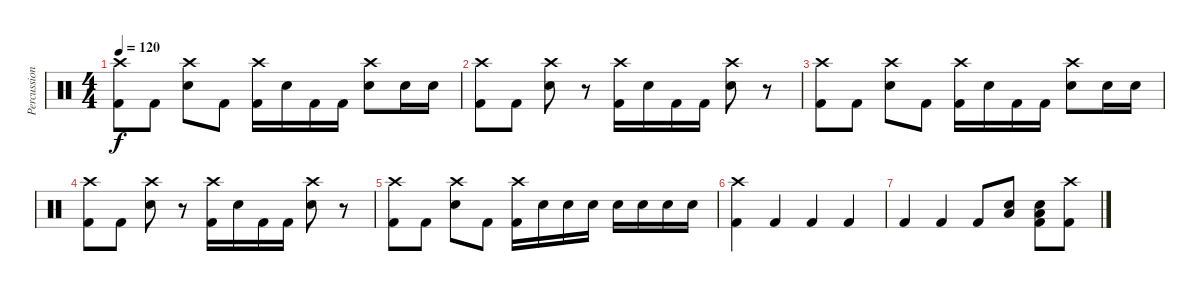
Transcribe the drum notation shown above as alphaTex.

\track ("Percussion" "Percussion") {instrument percussion}
\staff {score}
\articulation defaults
\ts (4 4)
\tempo 120
\clef neutral
\ks c
("Kick (hit) 2" "Crash high (hit)").8{dy f} "Kick (hit) 2".8 ("Electric Snare (hit)" "Crash high (hit)").8 "Kick (hit) 2".8 ("Kick (hit) 2" "Crash high (hit)").16 "Electric Snare (hit)".16 "Kick (hit) 2".16 "Kick (hit) 2".16 ("Electric Snare (hit)" "Crash high (hit)").8 "Electric Snare (hit)".16 "Electric Snare (hit)".16 |
("Kick (hit) 2" "Crash high (hit)").8 "Kick (hit) 2".8 ("Electric Snare (hit)" "Crash high (hit)").8 r.8 ("Kick (hit) 2" "Crash high (hit)").16 "Electric Snare (hit)".16 "Kick (hit) 2".16 "Kick (hit) 2".16 ("Electric Snare (hit)" "Crash high (hit)").8 r.8 |
("Kick (hit) 2" "Crash high (hit)").8 "Kick (hit) 2".8 ("Electric Snare (hit)" "Crash high (hit)").8 "Kick (hit) 2".8 ("Kick (hit) 2" "Crash high (hit)").16 "Electric Snare (hit)".16 "Kick (hit) 2".16 "Kick (hit) 2".16 ("Electric Snare (hit)" "Crash high (hit)").8 "Electric Snare (hit)".16 "Electric Snare (hit)".16 |
("Kick (hit) 2" "Crash high (hit)").8 "Kick (hit) 2".8 ("Electric Snare (hit)" "Crash high (hit)").8 r.8 ("Kick (hit) 2" "Crash high (hit)").16 "Electric Snare (hit)".16 "Kick (hit) 2".16 "Kick (hit) 2".16 ("Electric Snare (hit)" "Crash high (hit)").8 r.8 |
("Kick (hit) 2" "Crash high (hit)").8 "Kick (hit) 2".8 ("Electric Snare (hit)" "Crash high (hit)").8 "Kick (hit) 2".8 ("Kick (hit) 2" "Crash high (hit)").16 "Electric Snare (hit)".16 "Electric Snare (hit)".16 "Electric Snare (hit)".16 "Electric Snare (hit)".16 "Electric Snare (hit)".16 "Electric Snare (hit)".16 "Electric Snare (hit)".16 |
("Kick (hit) 2" "Crash high (hit)").4 "Kick (hit) 2".4 "Kick (hit) 2".4 "Kick (hit) 2".4 |
"Kick (hit) 2".4 "Kick (hit) 2".4 "Kick (hit) 2".8 ("Electric Snare (hit)" "Low Floor Tom (hit)").8 ("Kick (hit) 2" "Electric Snare (hit)" "Low Floor Tom (hit)").8 ("Crash high (hit)" "Kick (hit) 2").8
